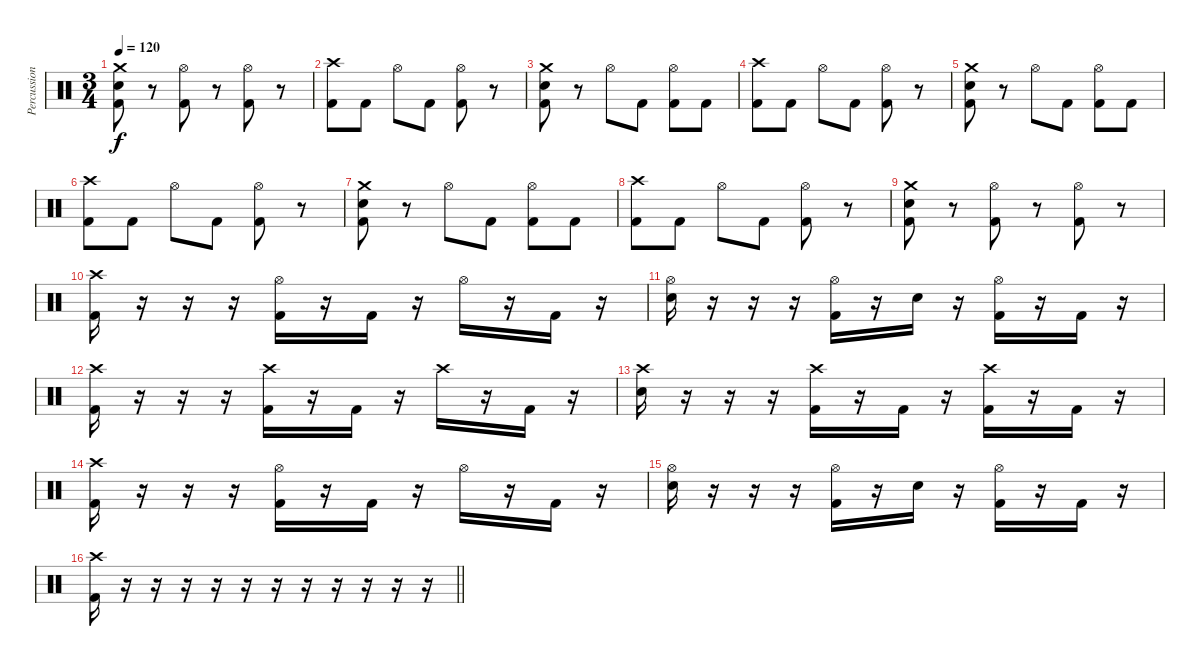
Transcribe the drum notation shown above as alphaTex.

\track ("Percussion" "Percussion") {instrument percussion}
\staff {score}
\articulation defaults
\ts (3 4)
\tempo 120
\clef neutral
\ks c
("Kick (hit) 2" "Electric Snare (hit)" "Crash medium (hit)").8{dy f} r.8 ("Kick (hit) 2" "Hi-Hat (open)").8 r.8 ("Kick (hit) 2" "Hi-Hat (open)").8 r.8 |
("Kick (hit) 2" "Crash high (hit)").8 "Kick (hit) 2".8 "Hi-Hat (open)".8 "Kick (hit) 2".8 ("Kick (hit) 2" "Hi-Hat (open)").8 r.8 |
("Kick (hit) 2" "Electric Snare (hit)" "Crash medium (hit)").8 r.8 "Hi-Hat (open)".8 "Kick (hit) 2".8 ("Kick (hit) 2" "Hi-Hat (open)").8 "Kick (hit) 2".8 |
("Kick (hit) 2" "Crash high (hit)").8 "Kick (hit) 2".8 "Hi-Hat (open)".8 "Kick (hit) 2".8 ("Kick (hit) 2" "Hi-Hat (open)").8 r.8 |
("Kick (hit) 2" "Electric Snare (hit)" "Crash medium (hit)").8 r.8 "Hi-Hat (open)".8 "Kick (hit) 2".8 ("Kick (hit) 2" "Hi-Hat (open)").8 "Kick (hit) 2".8 |
("Kick (hit) 2" "Crash high (hit)").8 "Kick (hit) 2".8 "Hi-Hat (open)".8 "Kick (hit) 2".8 ("Kick (hit) 2" "Hi-Hat (open)").8 r.8 |
("Kick (hit) 2" "Electric Snare (hit)" "Crash medium (hit)").8 r.8 "Hi-Hat (open)".8 "Kick (hit) 2".8 ("Kick (hit) 2" "Hi-Hat (open)").8 "Kick (hit) 2".8 |
("Kick (hit) 2" "Crash high (hit)").8 "Kick (hit) 2".8 "Hi-Hat (open)".8 "Kick (hit) 2".8 ("Kick (hit) 2" "Hi-Hat (open)").8 r.8 |
("Kick (hit) 2" "Electric Snare (hit)" "Crash medium (hit)").8 r.8 ("Kick (hit) 2" "Hi-Hat (open)").8 r.8 ("Kick (hit) 2" "Hi-Hat (open)").8 r.8 |
("Kick (hit) 2" "Crash high (hit)").16 r.16 r.16 r.16 ("Kick (hit) 2" "Hi-Hat (open)").16 r.16 "Kick (hit) 2".16 r.16 "Hi-Hat (open)".16 r.16 "Kick (hit) 2".16 r.16 |
("Electric Snare (hit)" "Hi-Hat (open)").16 r.16 r.16 r.16 ("Kick (hit) 2" "Hi-Hat (open)").16 r.16 "Electric Snare (hit)".16 r.16 ("Kick (hit) 2" "Hi-Hat (open)").16 r.16 "Kick (hit) 2".16 r.16 |
("Kick (hit) 2" "Crash high (hit)").16 r.16 r.16 r.16 ("Kick (hit) 2" "Crash high (hit)").16 r.16 "Kick (hit) 2".16 r.16 "Crash high (hit)".16 r.16 "Kick (hit) 2".16 r.16 |
("Electric Snare (hit)" "Crash high (hit)").16 r.16 r.16 r.16 ("Kick (hit) 2" "Crash high (hit)").16 r.16 "Kick (hit) 2".16 r.16 ("Kick (hit) 2" "Crash high (hit)").16 r.16 "Kick (hit) 2".16 r.16 |
("Kick (hit) 2" "Crash high (hit)").16 r.16 r.16 r.16 ("Kick (hit) 2" "Hi-Hat (open)").16 r.16 "Kick (hit) 2".16 r.16 "Hi-Hat (open)".16 r.16 "Kick (hit) 2".16 r.16 |
("Electric Snare (hit)" "Hi-Hat (open)").16 r.16 r.16 r.16 ("Kick (hit) 2" "Hi-Hat (open)").16 r.16 "Electric Snare (hit)".16 r.16 ("Kick (hit) 2" "Hi-Hat (open)").16 r.16 "Kick (hit) 2".16 r.16 |
\barLineRight lightlight
("Kick (hit) 2" "Crash high (hit)").16 r.16 r.16 r.16 r.16 r.16 r.16 r.16 r.16 r.16 r.16 r.16
